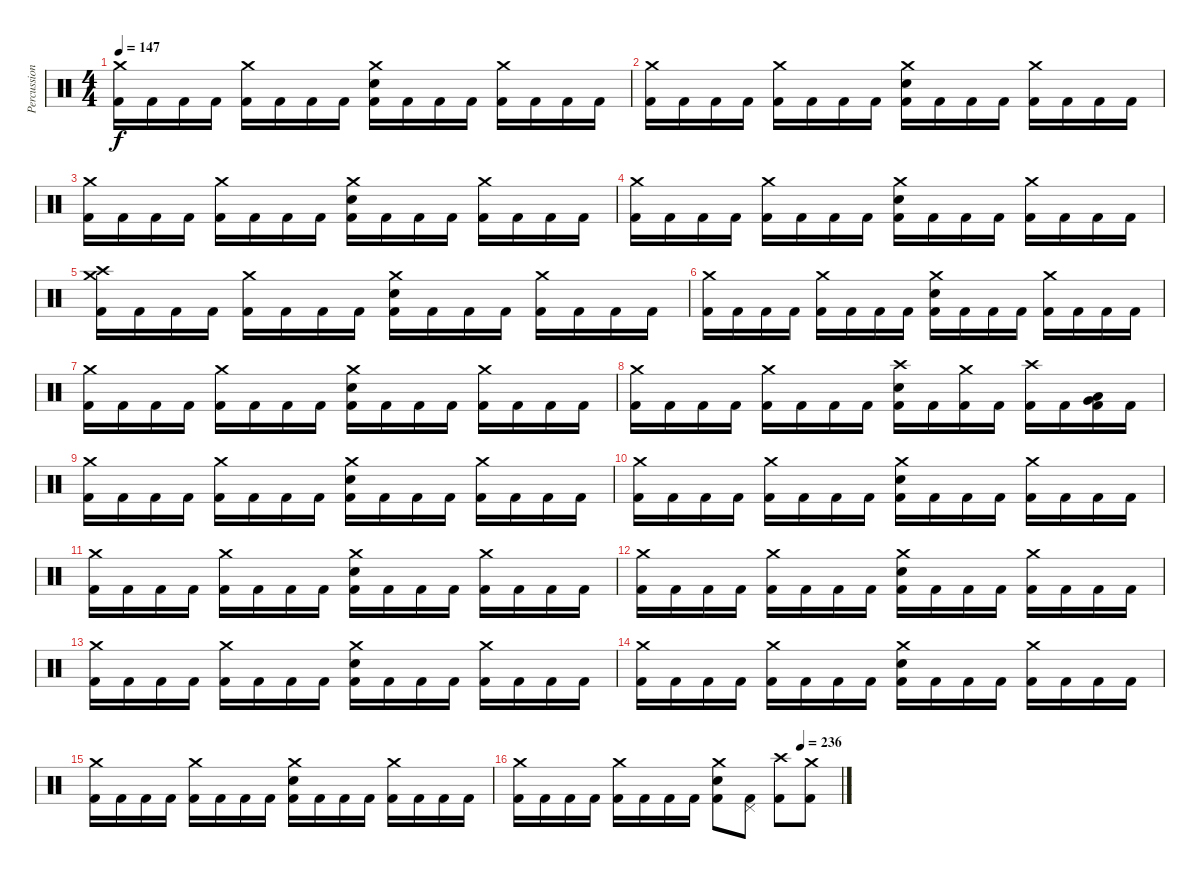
\track ("Percussion" "Percussion") {instrument percussion}
\staff {score}
\articulation defaults
\ts (4 4)
\tempo 147
\clef neutral
\ks c
("Crash medium (hit)" "Kick (hit) 2").16{dy f} "Kick (hit) 2".16 "Kick (hit) 2".16 "Kick (hit) 2".16 ("Crash medium (hit)" "Kick (hit) 2").16 "Kick (hit) 2".16 "Kick (hit) 2".16 "Kick (hit) 2".16 ("Crash medium (hit)" "Snare (hit) 2" "Kick (hit) 2").16 "Kick (hit) 2".16 "Kick (hit) 2".16 "Kick (hit) 2".16 ("Crash medium (hit)" "Kick (hit) 2").16 "Kick (hit) 2".16 "Kick (hit) 2".16 "Kick (hit) 2".16 |
("Crash medium (hit)" "Kick (hit) 2").16 "Kick (hit) 2".16 "Kick (hit) 2".16 "Kick (hit) 2".16 ("Crash medium (hit)" "Kick (hit) 2").16 "Kick (hit) 2".16 "Kick (hit) 2".16 "Kick (hit) 2".16 ("Crash medium (hit)" "Snare (hit) 2" "Kick (hit) 2").16 "Kick (hit) 2".16 "Kick (hit) 2".16 "Kick (hit) 2".16 ("Crash medium (hit)" "Kick (hit) 2").16 "Kick (hit) 2".16 "Kick (hit) 2".16 "Kick (hit) 2".16 |
("Crash medium (hit)" "Kick (hit) 2").16 "Kick (hit) 2".16 "Kick (hit) 2".16 "Kick (hit) 2".16 ("Crash medium (hit)" "Kick (hit) 2").16 "Kick (hit) 2".16 "Kick (hit) 2".16 "Kick (hit) 2".16 ("Crash medium (hit)" "Snare (hit) 2" "Kick (hit) 2").16 "Kick (hit) 2".16 "Kick (hit) 2".16 "Kick (hit) 2".16 ("Crash medium (hit)" "Kick (hit) 2").16 "Kick (hit) 2".16 "Kick (hit) 2".16 "Kick (hit) 2".16 |
("Crash medium (hit)" "Kick (hit) 2").16 "Kick (hit) 2".16 "Kick (hit) 2".16 "Kick (hit) 2".16 ("Crash medium (hit)" "Kick (hit) 2").16 "Kick (hit) 2".16 "Kick (hit) 2".16 "Kick (hit) 2".16 ("Crash medium (hit)" "Snare (hit) 2" "Kick (hit) 2").16 "Kick (hit) 2".16 "Kick (hit) 2".16 "Kick (hit) 2".16 ("Crash medium (hit)" "Kick (hit) 2").16 "Kick (hit) 2".16 "Kick (hit) 2".16 "Kick (hit) 2".16 |
("Crash high (hit)" "Crash medium (hit)" "Kick (hit) 2").16 "Kick (hit) 2".16 "Kick (hit) 2".16 "Kick (hit) 2".16 ("Crash medium (hit)" "Kick (hit) 2").16 "Kick (hit) 2".16 "Kick (hit) 2".16 "Kick (hit) 2".16 ("Crash medium (hit)" "Snare (hit) 2" "Kick (hit) 2").16 "Kick (hit) 2".16 "Kick (hit) 2".16 "Kick (hit) 2".16 ("Crash medium (hit)" "Kick (hit) 2").16 "Kick (hit) 2".16 "Kick (hit) 2".16 "Kick (hit) 2".16 |
("Crash medium (hit)" "Kick (hit) 2").16 "Kick (hit) 2".16 "Kick (hit) 2".16 "Kick (hit) 2".16 ("Crash medium (hit)" "Kick (hit) 2").16 "Kick (hit) 2".16 "Kick (hit) 2".16 "Kick (hit) 2".16 ("Crash medium (hit)" "Snare (hit) 2" "Kick (hit) 2").16 "Kick (hit) 2".16 "Kick (hit) 2".16 "Kick (hit) 2".16 ("Crash medium (hit)" "Kick (hit) 2").16 "Kick (hit) 2".16 "Kick (hit) 2".16 "Kick (hit) 2".16 |
("Crash medium (hit)" "Kick (hit) 2").16 "Kick (hit) 2".16 "Kick (hit) 2".16 "Kick (hit) 2".16 ("Crash medium (hit)" "Kick (hit) 2").16 "Kick (hit) 2".16 "Kick (hit) 2".16 "Kick (hit) 2".16 ("Crash medium (hit)" "Snare (hit) 2" "Kick (hit) 2").16 "Kick (hit) 2".16 "Kick (hit) 2".16 "Kick (hit) 2".16 ("Crash medium (hit)" "Kick (hit) 2").16 "Kick (hit) 2".16 "Kick (hit) 2".16 "Kick (hit) 2".16 |
("Crash medium (hit)" "Kick (hit) 2").16 "Kick (hit) 2".16 "Kick (hit) 2".16 "Kick (hit) 2".16 ("Crash medium (hit)" "Kick (hit) 2").16 "Kick (hit) 2".16 "Kick (hit) 2".16 "Kick (hit) 2".16 ("Crash high (hit)" "Snare (hit) 2" "Kick (hit) 2").16 "Kick (hit) 2".16 ("Crash medium (hit)" "Kick (hit) 2").16 "Kick (hit) 2".16 ("Crash high (hit)" "Kick (hit) 2").16 "Kick (hit) 2".16 ("Very Low Tom (hit)" "Low Floor Tom (hit)" "Kick (hit) 2").16 "Kick (hit) 2".16 |
("Crash medium (hit)" "Kick (hit) 2").16 "Kick (hit) 2".16 "Kick (hit) 2".16 "Kick (hit) 2".16 ("Crash medium (hit)" "Kick (hit) 2").16 "Kick (hit) 2".16 "Kick (hit) 2".16 "Kick (hit) 2".16 ("Crash medium (hit)" "Snare (hit) 2" "Kick (hit) 2").16 "Kick (hit) 2".16 "Kick (hit) 2".16 "Kick (hit) 2".16 ("Crash medium (hit)" "Kick (hit) 2").16 "Kick (hit) 2".16 "Kick (hit) 2".16 "Kick (hit) 2".16 |
("Crash medium (hit)" "Kick (hit) 2").16 "Kick (hit) 2".16 "Kick (hit) 2".16 "Kick (hit) 2".16 ("Crash medium (hit)" "Kick (hit) 2").16 "Kick (hit) 2".16 "Kick (hit) 2".16 "Kick (hit) 2".16 ("Crash medium (hit)" "Snare (hit) 2" "Kick (hit) 2").16 "Kick (hit) 2".16 "Kick (hit) 2".16 "Kick (hit) 2".16 ("Crash medium (hit)" "Kick (hit) 2").16 "Kick (hit) 2".16 "Kick (hit) 2".16 "Kick (hit) 2".16 |
("Crash medium (hit)" "Kick (hit) 2").16 "Kick (hit) 2".16 "Kick (hit) 2".16 "Kick (hit) 2".16 ("Crash medium (hit)" "Kick (hit) 2").16 "Kick (hit) 2".16 "Kick (hit) 2".16 "Kick (hit) 2".16 ("Crash medium (hit)" "Snare (hit) 2" "Kick (hit) 2").16 "Kick (hit) 2".16 "Kick (hit) 2".16 "Kick (hit) 2".16 ("Crash medium (hit)" "Kick (hit) 2").16 "Kick (hit) 2".16 "Kick (hit) 2".16 "Kick (hit) 2".16 |
("Crash medium (hit)" "Kick (hit) 2").16 "Kick (hit) 2".16 "Kick (hit) 2".16 "Kick (hit) 2".16 ("Crash medium (hit)" "Kick (hit) 2").16 "Kick (hit) 2".16 "Kick (hit) 2".16 "Kick (hit) 2".16 ("Crash medium (hit)" "Snare (hit) 2" "Kick (hit) 2").16 "Kick (hit) 2".16 "Kick (hit) 2".16 "Kick (hit) 2".16 ("Crash medium (hit)" "Kick (hit) 2").16 "Kick (hit) 2".16 "Kick (hit) 2".16 "Kick (hit) 2".16 |
("Crash medium (hit)" "Kick (hit) 2").16 "Kick (hit) 2".16 "Kick (hit) 2".16 "Kick (hit) 2".16 ("Crash medium (hit)" "Kick (hit) 2").16 "Kick (hit) 2".16 "Kick (hit) 2".16 "Kick (hit) 2".16 ("Crash medium (hit)" "Snare (hit) 2" "Kick (hit) 2").16 "Kick (hit) 2".16 "Kick (hit) 2".16 "Kick (hit) 2".16 ("Crash medium (hit)" "Kick (hit) 2").16 "Kick (hit) 2".16 "Kick (hit) 2".16 "Kick (hit) 2".16 |
("Crash medium (hit)" "Kick (hit) 2").16 "Kick (hit) 2".16 "Kick (hit) 2".16 "Kick (hit) 2".16 ("Crash medium (hit)" "Kick (hit) 2").16 "Kick (hit) 2".16 "Kick (hit) 2".16 "Kick (hit) 2".16 ("Crash medium (hit)" "Snare (hit) 2" "Kick (hit) 2").16 "Kick (hit) 2".16 "Kick (hit) 2".16 "Kick (hit) 2".16 ("Crash medium (hit)" "Kick (hit) 2").16 "Kick (hit) 2".16 "Kick (hit) 2".16 "Kick (hit) 2".16 |
("Crash medium (hit)" "Kick (hit) 2").16 "Kick (hit) 2".16 "Kick (hit) 2".16 "Kick (hit) 2".16 ("Crash medium (hit)" "Kick (hit) 2").16 "Kick (hit) 2".16 "Kick (hit) 2".16 "Kick (hit) 2".16 ("Crash medium (hit)" "Snare (hit) 2" "Kick (hit) 2").16 "Kick (hit) 2".16 "Kick (hit) 2".16 "Kick (hit) 2".16 ("Crash medium (hit)" "Kick (hit) 2").16 "Kick (hit) 2".16 "Kick (hit) 2".16 "Kick (hit) 2".16 |
\tempo (236 0.875)
("Crash medium (hit)" "Kick (hit) 2").16 "Kick (hit) 2".16 "Kick (hit) 2".16 "Kick (hit) 2".16 ("Crash medium (hit)" "Kick (hit) 2").16 "Kick (hit) 2".16 "Kick (hit) 2".16 "Kick (hit) 2".16 ("Crash medium (hit)" "Snare (hit) 2" "Kick (hit) 2").8 ("Pedal Hi-Hat (hit)" "Kick (hit) 2").8 ("Crash high (hit)" "Kick (hit) 2").8 ("Crash medium (hit)" "Kick (hit) 2").8
